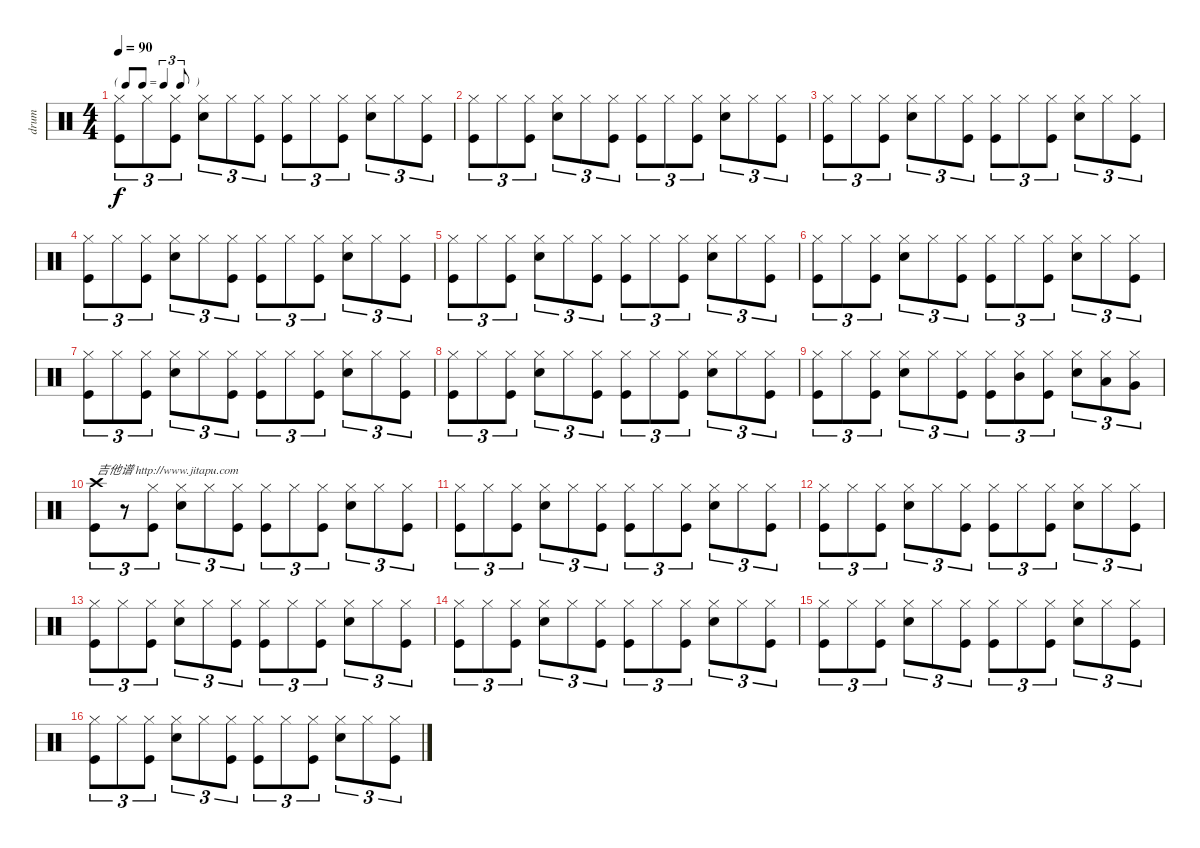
\track ("drum" "drum") {instrument percussion}
\staff {score}
\articulation defaults
\ts (4 4)
\tf triplet8th
\tempo 90
\clef neutral
\ks c
("Hi-Hat (closed)" "Kick (hit)").8{tu (3 2) dy f} "Hi-Hat (closed)".8{tu (3 2)} ("Hi-Hat (closed)" "Kick (hit)").8{tu (3 2)} ("Hi-Hat (closed)" "Snare (hit) 2").8{tu (3 2)} "Hi-Hat (closed)".8{tu (3 2)} ("Hi-Hat (closed)" "Kick (hit)").8{tu (3 2)} ("Hi-Hat (closed)" "Kick (hit)").8{tu (3 2)} "Hi-Hat (closed)".8{tu (3 2)} ("Hi-Hat (closed)" "Kick (hit)").8{tu (3 2)} ("Hi-Hat (closed)" "Snare (hit) 2").8{tu (3 2)} "Hi-Hat (closed)".8{tu (3 2)} ("Hi-Hat (closed)" "Kick (hit)").8{tu (3 2)} |
("Hi-Hat (closed)" "Kick (hit)").8{tu (3 2)} "Hi-Hat (closed)".8{tu (3 2)} ("Hi-Hat (closed)" "Kick (hit)").8{tu (3 2)} ("Hi-Hat (closed)" "Snare (hit) 2").8{tu (3 2)} "Hi-Hat (closed)".8{tu (3 2)} ("Hi-Hat (closed)" "Kick (hit)").8{tu (3 2)} ("Hi-Hat (closed)" "Kick (hit)").8{tu (3 2)} "Hi-Hat (closed)".8{tu (3 2)} ("Hi-Hat (closed)" "Kick (hit)").8{tu (3 2)} ("Hi-Hat (closed)" "Snare (hit) 2").8{tu (3 2)} "Hi-Hat (closed)".8{tu (3 2)} ("Hi-Hat (closed)" "Kick (hit)").8{tu (3 2)} |
("Hi-Hat (closed)" "Kick (hit)").8{tu (3 2)} "Hi-Hat (closed)".8{tu (3 2)} ("Hi-Hat (closed)" "Kick (hit)").8{tu (3 2)} ("Hi-Hat (closed)" "Snare (hit) 2").8{tu (3 2)} "Hi-Hat (closed)".8{tu (3 2)} ("Hi-Hat (closed)" "Kick (hit)").8{tu (3 2)} ("Hi-Hat (closed)" "Kick (hit)").8{tu (3 2)} "Hi-Hat (closed)".8{tu (3 2)} ("Hi-Hat (closed)" "Kick (hit)").8{tu (3 2)} ("Hi-Hat (closed)" "Snare (hit) 2").8{tu (3 2)} "Hi-Hat (closed)".8{tu (3 2)} ("Hi-Hat (closed)" "Kick (hit)").8{tu (3 2)} |
("Hi-Hat (closed)" "Kick (hit)").8{tu (3 2)} "Hi-Hat (closed)".8{tu (3 2)} ("Hi-Hat (closed)" "Kick (hit)").8{tu (3 2)} ("Hi-Hat (closed)" "Snare (hit) 2").8{tu (3 2)} "Hi-Hat (closed)".8{tu (3 2)} ("Hi-Hat (closed)" "Kick (hit)").8{tu (3 2)} ("Hi-Hat (closed)" "Kick (hit)").8{tu (3 2)} "Hi-Hat (closed)".8{tu (3 2)} ("Hi-Hat (closed)" "Kick (hit)").8{tu (3 2)} ("Hi-Hat (closed)" "Snare (hit) 2").8{tu (3 2)} "Hi-Hat (closed)".8{tu (3 2)} ("Hi-Hat (closed)" "Kick (hit)").8{tu (3 2)} |
("Hi-Hat (closed)" "Kick (hit)").8{tu (3 2)} "Hi-Hat (closed)".8{tu (3 2)} ("Hi-Hat (closed)" "Kick (hit)").8{tu (3 2)} ("Hi-Hat (closed)" "Snare (hit) 2").8{tu (3 2)} "Hi-Hat (closed)".8{tu (3 2)} ("Hi-Hat (closed)" "Kick (hit)").8{tu (3 2)} ("Hi-Hat (closed)" "Kick (hit)").8{tu (3 2)} "Hi-Hat (closed)".8{tu (3 2)} ("Hi-Hat (closed)" "Kick (hit)").8{tu (3 2)} ("Hi-Hat (closed)" "Snare (hit) 2").8{tu (3 2)} "Hi-Hat (closed)".8{tu (3 2)} ("Hi-Hat (closed)" "Kick (hit)").8{tu (3 2)} |
("Hi-Hat (closed)" "Kick (hit)").8{tu (3 2)} "Hi-Hat (closed)".8{tu (3 2)} ("Hi-Hat (closed)" "Kick (hit)").8{tu (3 2)} ("Hi-Hat (closed)" "Snare (hit) 2").8{tu (3 2)} "Hi-Hat (closed)".8{tu (3 2)} ("Hi-Hat (closed)" "Kick (hit)").8{tu (3 2)} ("Hi-Hat (closed)" "Kick (hit)").8{tu (3 2)} "Hi-Hat (closed)".8{tu (3 2)} ("Hi-Hat (closed)" "Kick (hit)").8{tu (3 2)} ("Hi-Hat (closed)" "Snare (hit) 2").8{tu (3 2)} "Hi-Hat (closed)".8{tu (3 2)} ("Hi-Hat (closed)" "Kick (hit)").8{tu (3 2)} |
("Hi-Hat (closed)" "Kick (hit)").8{tu (3 2)} "Hi-Hat (closed)".8{tu (3 2)} ("Hi-Hat (closed)" "Kick (hit)").8{tu (3 2)} ("Hi-Hat (closed)" "Snare (hit) 2").8{tu (3 2)} "Hi-Hat (closed)".8{tu (3 2)} ("Hi-Hat (closed)" "Kick (hit)").8{tu (3 2)} ("Hi-Hat (closed)" "Kick (hit)").8{tu (3 2)} "Hi-Hat (closed)".8{tu (3 2)} ("Hi-Hat (closed)" "Kick (hit)").8{tu (3 2)} ("Hi-Hat (closed)" "Snare (hit) 2").8{tu (3 2)} "Hi-Hat (closed)".8{tu (3 2)} ("Hi-Hat (closed)" "Kick (hit)").8{tu (3 2)} |
("Hi-Hat (closed)" "Kick (hit)").8{tu (3 2)} "Hi-Hat (closed)".8{tu (3 2)} ("Hi-Hat (closed)" "Kick (hit)").8{tu (3 2)} ("Hi-Hat (closed)" "Snare (hit) 2").8{tu (3 2)} "Hi-Hat (closed)".8{tu (3 2)} ("Hi-Hat (closed)" "Kick (hit)").8{tu (3 2)} ("Hi-Hat (closed)" "Kick (hit)").8{tu (3 2)} "Hi-Hat (closed)".8{tu (3 2)} ("Hi-Hat (closed)" "Kick (hit)").8{tu (3 2)} ("Hi-Hat (closed)" "Snare (hit) 2").8{tu (3 2)} "Hi-Hat (closed)".8{tu (3 2)} ("Hi-Hat (closed)" "Kick (hit)").8{tu (3 2)} |
("Hi-Hat (closed)" "Kick (hit)").8{tu (3 2)} "Hi-Hat (closed)".8{tu (3 2)} ("Hi-Hat (closed)" "Kick (hit)").8{tu (3 2)} ("Hi-Hat (closed)" "Snare (hit) 2").8{tu (3 2)} "Hi-Hat (closed)".8{tu (3 2)} ("Hi-Hat (closed)" "Kick (hit)").8{tu (3 2)} ("Hi-Hat (closed)" "Kick (hit)").8{tu (3 2)} ("Hi-Hat (closed)" "Mid Tom (hit)").8{tu (3 2)} ("Hi-Hat (closed)" "Kick (hit)").8{tu (3 2)} ("Hi-Hat (closed)" "Snare (hit) 2").8{tu (3 2)} ("Hi-Hat (closed)" "Low Tom (hit)").8{tu (3 2)} ("Hi-Hat (closed)" "Very Low Tom (hit)").8{tu (3 2)} |
("Crash high (hit)" "Kick (hit)").8{tu (3 2) txt "吉他谱 http://www.jitapu.com"} r.8{tu (3 2)} ("Hi-Hat (closed)" "Kick (hit)").8{tu (3 2)} ("Hi-Hat (closed)" "Snare (hit) 2").8{tu (3 2)} "Hi-Hat (closed)".8{tu (3 2)} ("Hi-Hat (closed)" "Kick (hit)").8{tu (3 2)} ("Hi-Hat (closed)" "Kick (hit)").8{tu (3 2)} "Hi-Hat (closed)".8{tu (3 2)} ("Hi-Hat (closed)" "Kick (hit)").8{tu (3 2)} ("Hi-Hat (closed)" "Snare (hit) 2").8{tu (3 2)} "Hi-Hat (closed)".8{tu (3 2)} ("Hi-Hat (closed)" "Kick (hit)").8{tu (3 2)} |
("Hi-Hat (closed)" "Kick (hit)").8{tu (3 2)} "Hi-Hat (closed)".8{tu (3 2)} ("Hi-Hat (closed)" "Kick (hit)").8{tu (3 2)} ("Hi-Hat (closed)" "Snare (hit) 2").8{tu (3 2)} "Hi-Hat (closed)".8{tu (3 2)} ("Hi-Hat (closed)" "Kick (hit)").8{tu (3 2)} ("Hi-Hat (closed)" "Kick (hit)").8{tu (3 2)} "Hi-Hat (closed)".8{tu (3 2)} ("Hi-Hat (closed)" "Kick (hit)").8{tu (3 2)} ("Hi-Hat (closed)" "Snare (hit) 2").8{tu (3 2)} "Hi-Hat (closed)".8{tu (3 2)} ("Hi-Hat (closed)" "Kick (hit)").8{tu (3 2)} |
("Hi-Hat (closed)" "Kick (hit)").8{tu (3 2)} "Hi-Hat (closed)".8{tu (3 2)} ("Hi-Hat (closed)" "Kick (hit)").8{tu (3 2)} ("Hi-Hat (closed)" "Snare (hit) 2").8{tu (3 2)} "Hi-Hat (closed)".8{tu (3 2)} ("Hi-Hat (closed)" "Kick (hit)").8{tu (3 2)} ("Hi-Hat (closed)" "Kick (hit)").8{tu (3 2)} "Hi-Hat (closed)".8{tu (3 2)} ("Hi-Hat (closed)" "Kick (hit)").8{tu (3 2)} ("Hi-Hat (closed)" "Snare (hit) 2").8{tu (3 2)} "Hi-Hat (closed)".8{tu (3 2)} ("Hi-Hat (closed)" "Kick (hit)").8{tu (3 2)} |
("Hi-Hat (closed)" "Kick (hit)").8{tu (3 2)} "Hi-Hat (closed)".8{tu (3 2)} ("Hi-Hat (closed)" "Kick (hit)").8{tu (3 2)} ("Hi-Hat (closed)" "Snare (hit) 2").8{tu (3 2)} "Hi-Hat (closed)".8{tu (3 2)} ("Hi-Hat (closed)" "Kick (hit)").8{tu (3 2)} ("Hi-Hat (closed)" "Kick (hit)").8{tu (3 2)} "Hi-Hat (closed)".8{tu (3 2)} ("Hi-Hat (closed)" "Kick (hit)").8{tu (3 2)} ("Hi-Hat (closed)" "Snare (hit) 2").8{tu (3 2)} "Hi-Hat (closed)".8{tu (3 2)} ("Hi-Hat (closed)" "Kick (hit)").8{tu (3 2)} |
("Hi-Hat (closed)" "Kick (hit)").8{tu (3 2)} "Hi-Hat (closed)".8{tu (3 2)} ("Hi-Hat (closed)" "Kick (hit)").8{tu (3 2)} ("Hi-Hat (closed)" "Snare (hit) 2").8{tu (3 2)} "Hi-Hat (closed)".8{tu (3 2)} ("Hi-Hat (closed)" "Kick (hit)").8{tu (3 2)} ("Hi-Hat (closed)" "Kick (hit)").8{tu (3 2)} "Hi-Hat (closed)".8{tu (3 2)} ("Hi-Hat (closed)" "Kick (hit)").8{tu (3 2)} ("Hi-Hat (closed)" "Snare (hit) 2").8{tu (3 2)} "Hi-Hat (closed)".8{tu (3 2)} ("Hi-Hat (closed)" "Kick (hit)").8{tu (3 2)} |
("Hi-Hat (closed)" "Kick (hit)").8{tu (3 2)} "Hi-Hat (closed)".8{tu (3 2)} ("Hi-Hat (closed)" "Kick (hit)").8{tu (3 2)} ("Hi-Hat (closed)" "Snare (hit) 2").8{tu (3 2)} "Hi-Hat (closed)".8{tu (3 2)} ("Hi-Hat (closed)" "Kick (hit)").8{tu (3 2)} ("Hi-Hat (closed)" "Kick (hit)").8{tu (3 2)} "Hi-Hat (closed)".8{tu (3 2)} ("Hi-Hat (closed)" "Kick (hit)").8{tu (3 2)} ("Hi-Hat (closed)" "Snare (hit) 2").8{tu (3 2)} "Hi-Hat (closed)".8{tu (3 2)} ("Hi-Hat (closed)" "Kick (hit)").8{tu (3 2)} |
("Hi-Hat (closed)" "Kick (hit)").8{tu (3 2)} "Hi-Hat (closed)".8{tu (3 2)} ("Hi-Hat (closed)" "Kick (hit)").8{tu (3 2)} ("Hi-Hat (closed)" "Snare (hit) 2").8{tu (3 2)} "Hi-Hat (closed)".8{tu (3 2)} ("Hi-Hat (closed)" "Kick (hit)").8{tu (3 2)} ("Hi-Hat (closed)" "Kick (hit)").8{tu (3 2)} "Hi-Hat (closed)".8{tu (3 2)} ("Hi-Hat (closed)" "Kick (hit)").8{tu (3 2)} ("Hi-Hat (closed)" "Snare (hit) 2").8{tu (3 2)} "Hi-Hat (closed)".8{tu (3 2)} ("Hi-Hat (closed)" "Kick (hit)").8{tu (3 2)}
